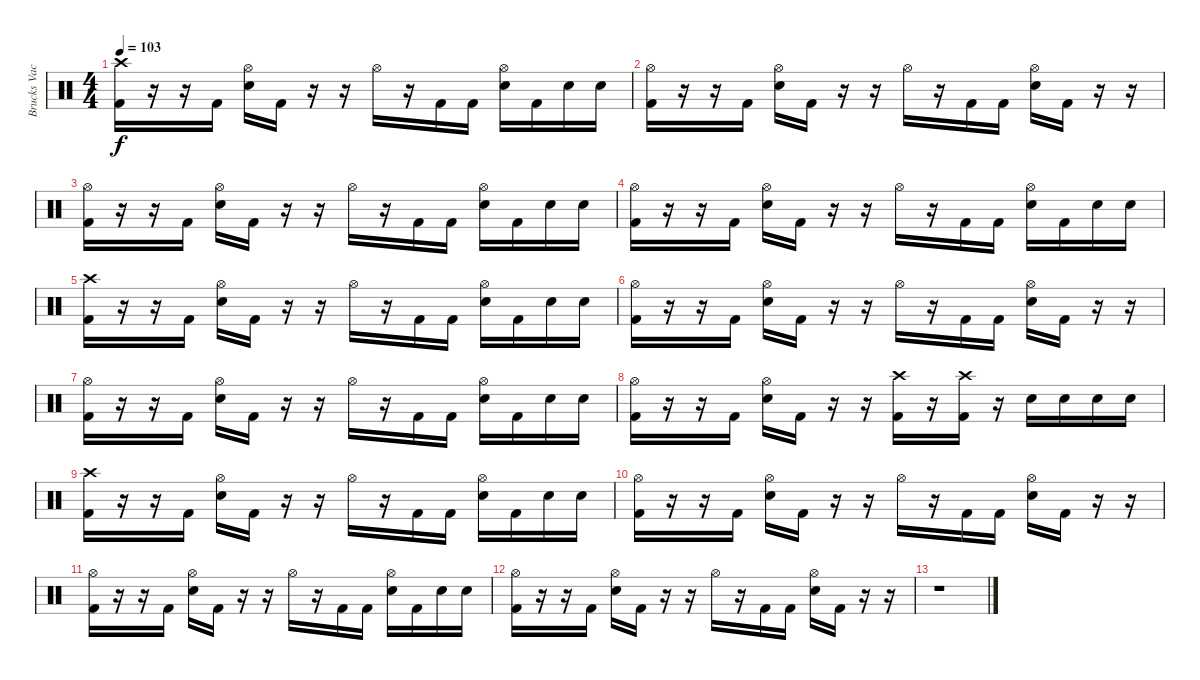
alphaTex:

\track ("Brucks Vackerman" "Brucks Vac") {instrument percussion}
\staff {score}
\articulation defaults
\ts (4 4)
\tempo 103
\clef neutral
\ks c
("Crash high (hit)" "Kick (hit) 2").16{dy f} r.16 r.16 "Kick (hit) 2".16 ("Hi-Hat (open)" "Electric Snare (hit)").16 "Kick (hit) 2".16 r.16 r.16 "Hi-Hat (open)".16 r.16 "Kick (hit) 2".16 "Kick (hit) 2".16 ("Hi-Hat (open)" "Electric Snare (hit)").16 "Kick (hit) 2".16 "Electric Snare (hit)".16 "Electric Snare (hit)".16 |
("Hi-Hat (open)" "Kick (hit) 2").16 r.16 r.16 "Kick (hit) 2".16 ("Hi-Hat (open)" "Electric Snare (hit)").16 "Kick (hit) 2".16 r.16 r.16 "Hi-Hat (open)".16 r.16 "Kick (hit) 2".16 "Kick (hit) 2".16 ("Hi-Hat (open)" "Electric Snare (hit)").16 "Kick (hit) 2".16 r.16 r.16 |
("Hi-Hat (open)" "Kick (hit) 2").16 r.16 r.16 "Kick (hit) 2".16 ("Hi-Hat (open)" "Electric Snare (hit)").16 "Kick (hit) 2".16 r.16 r.16 "Hi-Hat (open)".16 r.16 "Kick (hit) 2".16 "Kick (hit) 2".16 ("Hi-Hat (open)" "Electric Snare (hit)").16 "Kick (hit) 2".16 "Electric Snare (hit)".16 "Electric Snare (hit)".16 |
("Hi-Hat (open)" "Kick (hit) 2").16 r.16 r.16 "Kick (hit) 2".16 ("Hi-Hat (open)" "Electric Snare (hit)").16 "Kick (hit) 2".16 r.16 r.16 "Hi-Hat (open)".16 r.16 "Kick (hit) 2".16 "Kick (hit) 2".16 ("Hi-Hat (open)" "Electric Snare (hit)").16 "Kick (hit) 2".16 "Electric Snare (hit)".16 "Electric Snare (hit)".16 |
("Crash high (hit)" "Kick (hit) 2").16 r.16 r.16 "Kick (hit) 2".16 ("Hi-Hat (open)" "Electric Snare (hit)").16 "Kick (hit) 2".16 r.16 r.16 "Hi-Hat (open)".16 r.16 "Kick (hit) 2".16 "Kick (hit) 2".16 ("Hi-Hat (open)" "Electric Snare (hit)").16 "Kick (hit) 2".16 "Electric Snare (hit)".16 "Electric Snare (hit)".16 |
("Hi-Hat (open)" "Kick (hit) 2").16 r.16 r.16 "Kick (hit) 2".16 ("Hi-Hat (open)" "Electric Snare (hit)").16 "Kick (hit) 2".16 r.16 r.16 "Hi-Hat (open)".16 r.16 "Kick (hit) 2".16 "Kick (hit) 2".16 ("Hi-Hat (open)" "Electric Snare (hit)").16 "Kick (hit) 2".16 r.16 r.16 |
("Hi-Hat (open)" "Kick (hit) 2").16 r.16 r.16 "Kick (hit) 2".16 ("Hi-Hat (open)" "Electric Snare (hit)").16 "Kick (hit) 2".16 r.16 r.16 "Hi-Hat (open)".16 r.16 "Kick (hit) 2".16 "Kick (hit) 2".16 ("Hi-Hat (open)" "Electric Snare (hit)").16 "Kick (hit) 2".16 "Electric Snare (hit)".16 "Electric Snare (hit)".16 |
("Hi-Hat (open)" "Kick (hit) 2").16 r.16 r.16 "Kick (hit) 2".16 ("Hi-Hat (open)" "Electric Snare (hit)").16 "Kick (hit) 2".16 r.16 r.16 ("Crash high (hit)" "Kick (hit) 2").16 r.16 ("Crash high (hit)" "Kick (hit) 2").16 r.16 "Electric Snare (hit)".16 "Electric Snare (hit)".16 "Electric Snare (hit)".16 "Electric Snare (hit)".16 |
("Crash high (hit)" "Kick (hit) 2").16 r.16 r.16 "Kick (hit) 2".16 ("Hi-Hat (open)" "Electric Snare (hit)").16 "Kick (hit) 2".16 r.16 r.16 "Hi-Hat (open)".16 r.16 "Kick (hit) 2".16 "Kick (hit) 2".16 ("Hi-Hat (open)" "Electric Snare (hit)").16 "Kick (hit) 2".16 "Electric Snare (hit)".16 "Electric Snare (hit)".16 |
("Hi-Hat (open)" "Kick (hit) 2").16 r.16 r.16 "Kick (hit) 2".16 ("Hi-Hat (open)" "Electric Snare (hit)").16 "Kick (hit) 2".16 r.16 r.16 "Hi-Hat (open)".16 r.16 "Kick (hit) 2".16 "Kick (hit) 2".16 ("Hi-Hat (open)" "Electric Snare (hit)").16 "Kick (hit) 2".16 r.16 r.16 |
("Hi-Hat (open)" "Kick (hit) 2").16 r.16 r.16 "Kick (hit) 2".16 ("Hi-Hat (open)" "Electric Snare (hit)").16 "Kick (hit) 2".16 r.16 r.16 "Hi-Hat (open)".16 r.16 "Kick (hit) 2".16 "Kick (hit) 2".16 ("Hi-Hat (open)" "Electric Snare (hit)").16 "Kick (hit) 2".16 "Electric Snare (hit)".16 "Electric Snare (hit)".16 |
("Hi-Hat (open)" "Kick (hit) 2").16 r.16 r.16 "Kick (hit) 2".16 ("Hi-Hat (open)" "Electric Snare (hit)").16 "Kick (hit) 2".16 r.16 r.16 "Hi-Hat (open)".16 r.16 "Kick (hit) 2".16 "Kick (hit) 2".16 ("Hi-Hat (open)" "Electric Snare (hit)").16 "Kick (hit) 2".16 r.16 r.16 |
r.1
